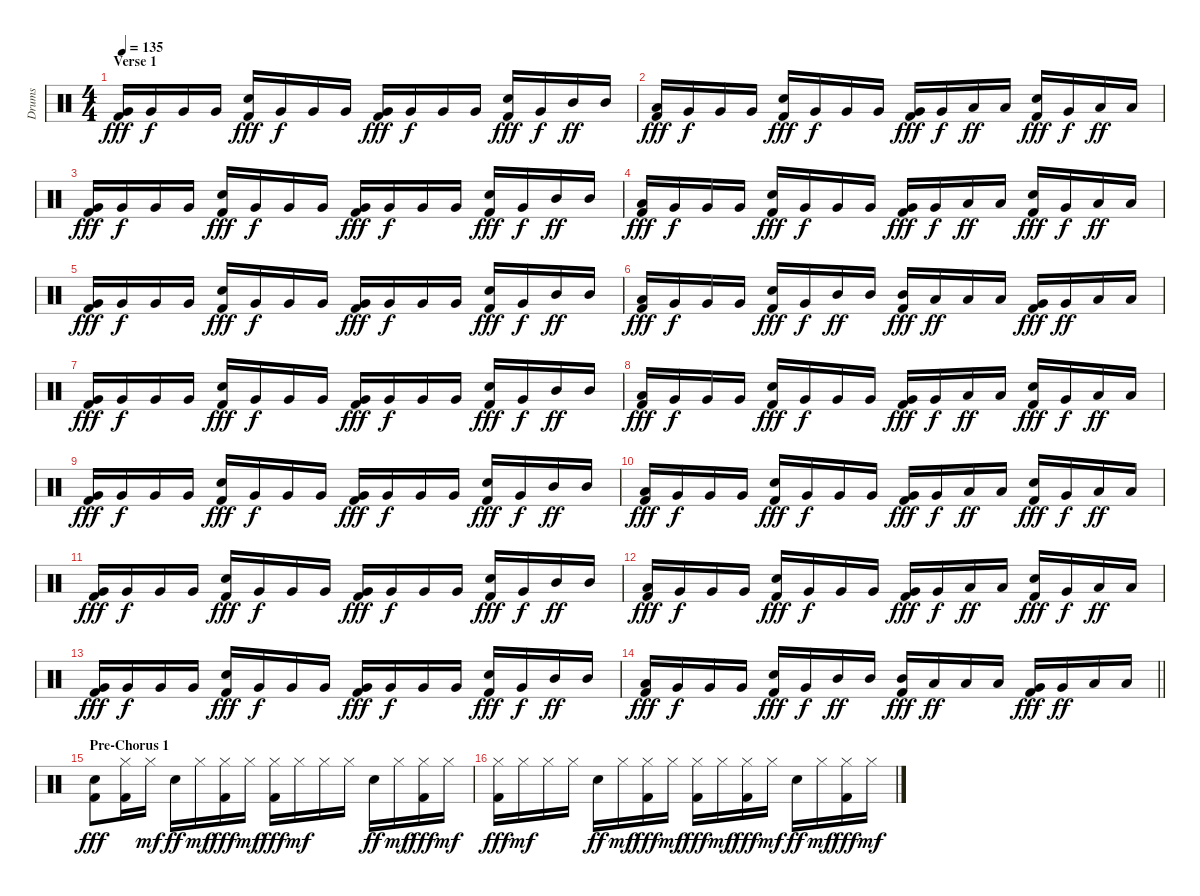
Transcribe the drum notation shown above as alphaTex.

\track ("Drums" "Drums") {instrument percussion}
\staff {score}
\articulation defaults
\ts (4 4)
\section ("" "Verse 1")
\tempo 135
\clef neutral
\ks c
("Very Low Tom (hit)" "Kick (hit) 2").16{dy fff} "Very Low Tom (hit)".16{dy f} "Very Low Tom (hit)".16 "Very Low Tom (hit)".16 ("Snare (hit) 2" "Kick (hit) 2").16{dy fff} "Very Low Tom (hit)".16{dy f} "Very Low Tom (hit)".16 "Very Low Tom (hit)".16 ("Very Low Tom (hit)" "Kick (hit) 2").16{dy fff} "Very Low Tom (hit)".16{dy f} "Very Low Tom (hit)".16 "Very Low Tom (hit)".16 ("Snare (hit) 2" "Kick (hit) 2").16{dy fff} "Very Low Tom (hit)".16{dy f} "Mid Tom (hit)".16{dy ff} "Mid Tom (hit)".16 |
("Low Tom (hit)" "Kick (hit) 2").16{dy fff} "Very Low Tom (hit)".16{dy f} "Very Low Tom (hit)".16 "Very Low Tom (hit)".16 ("Snare (hit) 2" "Kick (hit) 2").16{dy fff} "Very Low Tom (hit)".16{dy f} "Very Low Tom (hit)".16 "Very Low Tom (hit)".16 ("Very Low Tom (hit)" "Kick (hit) 2").16{dy fff} "Very Low Tom (hit)".16{dy f} "Low Tom (hit)".16{dy ff} "Low Tom (hit)".16 ("Snare (hit) 2" "Kick (hit) 2").16{dy fff} "Very Low Tom (hit)".16{dy f} "Low Tom (hit)".16{dy ff} "Low Tom (hit)".16 |
("Very Low Tom (hit)" "Kick (hit) 2").16{dy fff} "Very Low Tom (hit)".16{dy f} "Very Low Tom (hit)".16 "Very Low Tom (hit)".16 ("Snare (hit) 2" "Kick (hit) 2").16{dy fff} "Very Low Tom (hit)".16{dy f} "Very Low Tom (hit)".16 "Very Low Tom (hit)".16 ("Very Low Tom (hit)" "Kick (hit) 2").16{dy fff} "Very Low Tom (hit)".16{dy f} "Very Low Tom (hit)".16 "Very Low Tom (hit)".16 ("Snare (hit) 2" "Kick (hit) 2").16{dy fff} "Very Low Tom (hit)".16{dy f} "Mid Tom (hit)".16{dy ff} "Mid Tom (hit)".16 |
("Low Tom (hit)" "Kick (hit) 2").16{dy fff} "Very Low Tom (hit)".16{dy f} "Very Low Tom (hit)".16 "Very Low Tom (hit)".16 ("Snare (hit) 2" "Kick (hit) 2").16{dy fff} "Very Low Tom (hit)".16{dy f} "Very Low Tom (hit)".16 "Very Low Tom (hit)".16 ("Very Low Tom (hit)" "Kick (hit) 2").16{dy fff} "Very Low Tom (hit)".16{dy f} "Low Tom (hit)".16{dy ff} "Low Tom (hit)".16 ("Snare (hit) 2" "Kick (hit) 2").16{dy fff} "Very Low Tom (hit)".16{dy f} "Low Tom (hit)".16{dy ff} "Low Tom (hit)".16 |
("Very Low Tom (hit)" "Kick (hit) 2").16{dy fff} "Very Low Tom (hit)".16{dy f} "Very Low Tom (hit)".16 "Very Low Tom (hit)".16 ("Snare (hit) 2" "Kick (hit) 2").16{dy fff} "Very Low Tom (hit)".16{dy f} "Very Low Tom (hit)".16 "Very Low Tom (hit)".16 ("Very Low Tom (hit)" "Kick (hit) 2").16{dy fff} "Very Low Tom (hit)".16{dy f} "Very Low Tom (hit)".16 "Very Low Tom (hit)".16 ("Snare (hit) 2" "Kick (hit) 2").16{dy fff} "Very Low Tom (hit)".16{dy f} "Mid Tom (hit)".16{dy ff} "Mid Tom (hit)".16 |
("Low Tom (hit)" "Kick (hit) 2").16{dy fff} "Very Low Tom (hit)".16{dy f} "Very Low Tom (hit)".16 "Very Low Tom (hit)".16 ("Snare (hit) 2" "Kick (hit) 2").16{dy fff} "Very Low Tom (hit)".16{dy f} "Mid Tom (hit)".16{dy ff} "Mid Tom (hit)".16 ("Mid Tom (hit)" "Kick (hit) 2").16{dy fff} "Low Tom (hit)".16{dy ff} "Low Tom (hit)".16 "Low Tom (hit)".16 ("Very Low Tom (hit)" "Kick (hit) 2").16{dy fff} "Very Low Tom (hit)".16{dy ff} "Low Floor Tom (hit)".16 "Low Floor Tom (hit)".16 |
("Very Low Tom (hit)" "Kick (hit) 2").16{dy fff} "Very Low Tom (hit)".16{dy f} "Very Low Tom (hit)".16 "Very Low Tom (hit)".16 ("Snare (hit) 2" "Kick (hit) 2").16{dy fff} "Very Low Tom (hit)".16{dy f} "Very Low Tom (hit)".16 "Very Low Tom (hit)".16 ("Very Low Tom (hit)" "Kick (hit) 2").16{dy fff} "Very Low Tom (hit)".16{dy f} "Very Low Tom (hit)".16 "Very Low Tom (hit)".16 ("Snare (hit) 2" "Kick (hit) 2").16{dy fff} "Very Low Tom (hit)".16{dy f} "Mid Tom (hit)".16{dy ff} "Mid Tom (hit)".16 |
("Low Tom (hit)" "Kick (hit) 2").16{dy fff} "Very Low Tom (hit)".16{dy f} "Very Low Tom (hit)".16 "Very Low Tom (hit)".16 ("Snare (hit) 2" "Kick (hit) 2").16{dy fff} "Very Low Tom (hit)".16{dy f} "Very Low Tom (hit)".16 "Very Low Tom (hit)".16 ("Very Low Tom (hit)" "Kick (hit) 2").16{dy fff} "Very Low Tom (hit)".16{dy f} "Low Tom (hit)".16{dy ff} "Low Tom (hit)".16 ("Snare (hit) 2" "Kick (hit) 2").16{dy fff} "Very Low Tom (hit)".16{dy f} "Low Tom (hit)".16{dy ff} "Low Tom (hit)".16 |
("Very Low Tom (hit)" "Kick (hit) 2").16{dy fff} "Very Low Tom (hit)".16{dy f} "Very Low Tom (hit)".16 "Very Low Tom (hit)".16 ("Snare (hit) 2" "Kick (hit) 2").16{dy fff} "Very Low Tom (hit)".16{dy f} "Very Low Tom (hit)".16 "Very Low Tom (hit)".16 ("Very Low Tom (hit)" "Kick (hit) 2").16{dy fff} "Very Low Tom (hit)".16{dy f} "Very Low Tom (hit)".16 "Very Low Tom (hit)".16 ("Snare (hit) 2" "Kick (hit) 2").16{dy fff} "Very Low Tom (hit)".16{dy f} "Mid Tom (hit)".16{dy ff} "Mid Tom (hit)".16 |
("Low Tom (hit)" "Kick (hit) 2").16{dy fff} "Very Low Tom (hit)".16{dy f} "Very Low Tom (hit)".16 "Very Low Tom (hit)".16 ("Snare (hit) 2" "Kick (hit) 2").16{dy fff} "Very Low Tom (hit)".16{dy f} "Very Low Tom (hit)".16 "Very Low Tom (hit)".16 ("Very Low Tom (hit)" "Kick (hit) 2").16{dy fff} "Very Low Tom (hit)".16{dy f} "Low Tom (hit)".16{dy ff} "Low Tom (hit)".16 ("Snare (hit) 2" "Kick (hit) 2").16{dy fff} "Very Low Tom (hit)".16{dy f} "Low Tom (hit)".16{dy ff} "Low Tom (hit)".16 |
("Very Low Tom (hit)" "Kick (hit) 2").16{dy fff} "Very Low Tom (hit)".16{dy f} "Very Low Tom (hit)".16 "Very Low Tom (hit)".16 ("Snare (hit) 2" "Kick (hit) 2").16{dy fff} "Very Low Tom (hit)".16{dy f} "Very Low Tom (hit)".16 "Very Low Tom (hit)".16 ("Very Low Tom (hit)" "Kick (hit) 2").16{dy fff} "Very Low Tom (hit)".16{dy f} "Very Low Tom (hit)".16 "Very Low Tom (hit)".16 ("Snare (hit) 2" "Kick (hit) 2").16{dy fff} "Very Low Tom (hit)".16{dy f} "Mid Tom (hit)".16{dy ff} "Mid Tom (hit)".16 |
("Low Tom (hit)" "Kick (hit) 2").16{dy fff} "Very Low Tom (hit)".16{dy f} "Very Low Tom (hit)".16 "Very Low Tom (hit)".16 ("Snare (hit) 2" "Kick (hit) 2").16{dy fff} "Very Low Tom (hit)".16{dy f} "Very Low Tom (hit)".16 "Very Low Tom (hit)".16 ("Very Low Tom (hit)" "Kick (hit) 2").16{dy fff} "Very Low Tom (hit)".16{dy f} "Low Tom (hit)".16{dy ff} "Low Tom (hit)".16 ("Snare (hit) 2" "Kick (hit) 2").16{dy fff} "Very Low Tom (hit)".16{dy f} "Low Tom (hit)".16{dy ff} "Low Tom (hit)".16 |
("Very Low Tom (hit)" "Kick (hit) 2").16{dy fff} "Very Low Tom (hit)".16{dy f} "Very Low Tom (hit)".16 "Very Low Tom (hit)".16 ("Snare (hit) 2" "Kick (hit) 2").16{dy fff} "Very Low Tom (hit)".16{dy f} "Very Low Tom (hit)".16 "Very Low Tom (hit)".16 ("Very Low Tom (hit)" "Kick (hit) 2").16{dy fff} "Very Low Tom (hit)".16{dy f} "Very Low Tom (hit)".16 "Very Low Tom (hit)".16 ("Snare (hit) 2" "Kick (hit) 2").16{dy fff} "Very Low Tom (hit)".16{dy f} "Mid Tom (hit)".16{dy ff} "Mid Tom (hit)".16 |
\barLineRight lightlight
("Low Tom (hit)" "Kick (hit) 2").16{dy fff} "Very Low Tom (hit)".16{dy f} "Very Low Tom (hit)".16 "Very Low Tom (hit)".16 ("Snare (hit) 2" "Kick (hit) 2").16{dy fff} "Very Low Tom (hit)".16{dy f} "Mid Tom (hit)".16{dy ff} "Mid Tom (hit)".16 ("Mid Tom (hit)" "Kick (hit) 2").16{dy fff} "Low Tom (hit)".16{dy ff} "Low Tom (hit)".16 "Low Tom (hit)".16 ("Very Low Tom (hit)" "Kick (hit) 2").16{dy fff} "Very Low Tom (hit)".16{dy ff} "Low Floor Tom (hit)".16 "Low Floor Tom (hit)".16 |
\section ("" "Pre-Chorus 1")
("Snare (hit) 2" "Kick (hit) 2").8{dy fff} ("Hi-Hat (closed)" "Kick (hit) 2").16 "Hi-Hat (closed)".16{dy mf} "Snare (hit) 2".16{dy ff} "Hi-Hat (closed)".16{dy mf} ("Hi-Hat (closed)" "Kick (hit) 2").16{dy fff} "Hi-Hat (closed)".16{dy mf} ("Hi-Hat (closed)" "Kick (hit) 2").16{dy fff} "Hi-Hat (closed)".16{dy mf} "Hi-Hat (closed)".16 "Hi-Hat (closed)".16 "Snare (hit) 2".16{dy ff} "Hi-Hat (closed)".16{dy mf} ("Hi-Hat (closed)" "Kick (hit) 2").16{dy fff} "Hi-Hat (closed)".16{dy mf} |
("Hi-Hat (closed)" "Kick (hit) 2").16{dy fff} "Hi-Hat (closed)".16{dy mf} "Hi-Hat (closed)".16 "Hi-Hat (closed)".16 "Snare (hit) 2".16{dy ff} "Hi-Hat (closed)".16{dy mf} ("Hi-Hat (closed)" "Kick (hit) 2").16{dy fff} "Hi-Hat (closed)".16{dy mf} ("Hi-Hat (closed)" "Kick (hit) 2").16{dy fff} "Hi-Hat (closed)".16{dy mf} ("Hi-Hat (closed)" "Kick (hit) 2").16{dy fff} "Hi-Hat (closed)".16{dy mf} "Snare (hit) 2".16{dy ff} "Hi-Hat (closed)".16{dy mf} ("Hi-Hat (closed)" "Kick (hit) 2").16{dy fff} "Hi-Hat (closed)".16{dy mf}
